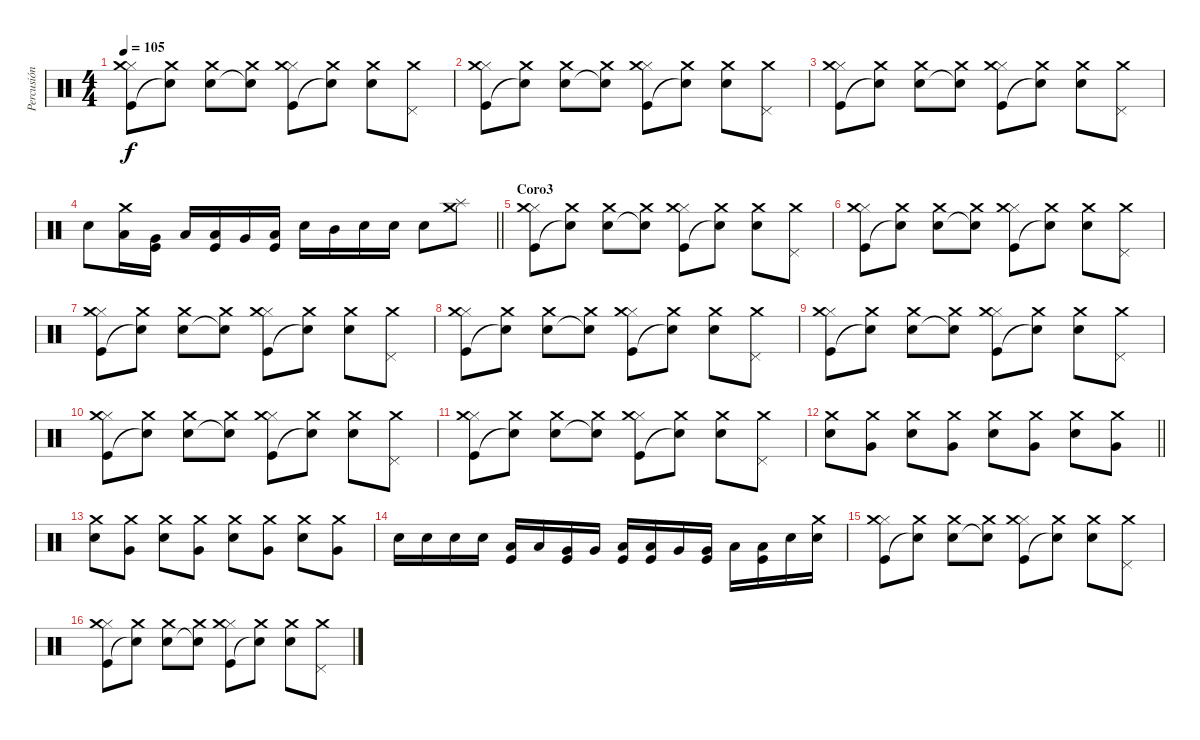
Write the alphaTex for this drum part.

\track ("Percusión" "Percusión") {instrument percussion}
\staff {score}
\articulation defaults
\ts (4 4)
\tempo 105
\clef neutral
\ks c
("Kick (hit)" "Hi-Hat (closed)" "Crash medium (hit)").8{dy f} ("Snare (hit)"{t} "Crash medium (hit)").8 ("Electric Snare (hit)" "Crash medium (hit)").8 ("Snare (hit)"{t} "Crash medium (hit)").8 ("Kick (hit)" "Hi-Hat (closed)" "Crash medium (hit)").8 ("Snare (hit)"{t} "Crash medium (hit)").8 ("Electric Snare (hit)" "Crash medium (hit)").8 ("Pedal Hi-Hat (hit)" "Crash medium (hit)").8 |
("Kick (hit)" "Hi-Hat (closed)" "Crash medium (hit)").8 ("Snare (hit)"{t} "Crash medium (hit)").8 ("Electric Snare (hit)" "Crash medium (hit)").8 ("Snare (hit)"{t} "Crash medium (hit)").8 ("Kick (hit)" "Hi-Hat (closed)" "Crash medium (hit)").8 ("Snare (hit)"{t} "Crash medium (hit)").8 ("Electric Snare (hit)" "Crash medium (hit)").8 ("Pedal Hi-Hat (hit)" "Crash medium (hit)").8 |
("Kick (hit)" "Hi-Hat (closed)" "Crash medium (hit)").8 ("Snare (hit)"{t} "Crash medium (hit)").8 ("Electric Snare (hit)" "Crash medium (hit)").8 ("Snare (hit)"{t} "Crash medium (hit)").8 ("Kick (hit)" "Hi-Hat (closed)" "Crash medium (hit)").8 ("Snare (hit)"{t} "Crash medium (hit)").8 ("Electric Snare (hit)" "Crash medium (hit)").8 ("Pedal Hi-Hat (hit)" "Crash medium (hit)").8 |
\barLineRight lightlight "Electric Snare (hit)".8
("Low Floor Tom (hit)" "Crash medium (hit)").16 ("Very Low Tom (hit)" "Kick (hit)").16 "Low Tom (hit)".16 ("Low Tom (hit)" "Kick (hit)").16 "Very Low Tom (hit)".16 ("Low Floor Tom (hit)" "Kick (hit)").16 "Electric Snare (hit)".16 "Mid Tom (hit)".16 "Electric Snare (hit)".16 "Electric Snare (hit)".16 "Electric Snare (hit)".8 ("Crash medium (hit)" "Splash (hit)").8 |
\section ("" "Coro3")
("Kick (hit)" "Hi-Hat (closed)" "Crash medium (hit)").8 ("Snare (hit)"{t} "Crash medium (hit)").8 ("Electric Snare (hit)" "Crash medium (hit)").8 ("Snare (hit)"{t} "Crash medium (hit)").8 ("Kick (hit)" "Hi-Hat (closed)" "Crash medium (hit)").8 ("Snare (hit)"{t} "Crash medium (hit)").8 ("Electric Snare (hit)" "Crash medium (hit)").8 ("Pedal Hi-Hat (hit)" "Crash medium (hit)").8 |
("Kick (hit)" "Hi-Hat (closed)" "Crash medium (hit)").8 ("Snare (hit)"{t} "Crash medium (hit)").8 ("Electric Snare (hit)" "Crash medium (hit)").8 ("Snare (hit)"{t} "Crash medium (hit)").8 ("Kick (hit)" "Hi-Hat (closed)" "Crash medium (hit)").8 ("Snare (hit)"{t} "Crash medium (hit)").8 ("Electric Snare (hit)" "Crash medium (hit)").8 ("Pedal Hi-Hat (hit)" "Crash medium (hit)").8 |
("Kick (hit)" "Hi-Hat (closed)" "Crash medium (hit)").8 ("Snare (hit)"{t} "Crash medium (hit)").8 ("Electric Snare (hit)" "Crash medium (hit)").8 ("Snare (hit)"{t} "Crash medium (hit)").8 ("Kick (hit)" "Hi-Hat (closed)" "Crash medium (hit)").8 ("Snare (hit)"{t} "Crash medium (hit)").8 ("Electric Snare (hit)" "Crash medium (hit)").8 ("Pedal Hi-Hat (hit)" "Crash medium (hit)").8 |
("Kick (hit)" "Hi-Hat (closed)" "Crash medium (hit)").8 ("Snare (hit)"{t} "Crash medium (hit)").8 ("Electric Snare (hit)" "Crash medium (hit)").8 ("Snare (hit)"{t} "Crash medium (hit)").8 ("Kick (hit)" "Hi-Hat (closed)" "Crash medium (hit)").8 ("Snare (hit)"{t} "Crash medium (hit)").8 ("Electric Snare (hit)" "Crash medium (hit)").8 ("Pedal Hi-Hat (hit)" "Crash medium (hit)").8 |
("Kick (hit)" "Hi-Hat (closed)" "Crash medium (hit)").8 ("Snare (hit)"{t} "Crash medium (hit)").8 ("Electric Snare (hit)" "Crash medium (hit)").8 ("Snare (hit)"{t} "Crash medium (hit)").8 ("Kick (hit)" "Hi-Hat (closed)" "Crash medium (hit)").8 ("Snare (hit)"{t} "Crash medium (hit)").8 ("Electric Snare (hit)" "Crash medium (hit)").8 ("Pedal Hi-Hat (hit)" "Crash medium (hit)").8 |
("Kick (hit)" "Hi-Hat (closed)" "Crash medium (hit)").8 ("Snare (hit)"{t} "Crash medium (hit)").8 ("Electric Snare (hit)" "Crash medium (hit)").8 ("Snare (hit)"{t} "Crash medium (hit)").8 ("Kick (hit)" "Hi-Hat (closed)" "Crash medium (hit)").8 ("Snare (hit)"{t} "Crash medium (hit)").8 ("Electric Snare (hit)" "Crash medium (hit)").8 ("Pedal Hi-Hat (hit)" "Crash medium (hit)").8 |
("Kick (hit)" "Hi-Hat (closed)" "Crash medium (hit)").8 ("Snare (hit)"{t} "Crash medium (hit)").8 ("Electric Snare (hit)" "Crash medium (hit)").8 ("Snare (hit)"{t} "Crash medium (hit)").8 ("Kick (hit)" "Hi-Hat (closed)" "Crash medium (hit)").8 ("Snare (hit)"{t} "Crash medium (hit)").8 ("Electric Snare (hit)" "Crash medium (hit)").8 ("Pedal Hi-Hat (hit)" "Crash medium (hit)").8 |
\barLineRight lightlight
("Electric Snare (hit)" "Crash medium (hit)").8 ("Very Low Tom (hit)" "Crash medium (hit)").8 ("Electric Snare (hit)" "Crash medium (hit)").8 ("Very Low Tom (hit)" "Crash medium (hit)").8 ("Electric Snare (hit)" "Crash medium (hit)").8 ("Very Low Tom (hit)" "Crash medium (hit)").8 ("Electric Snare (hit)" "Crash medium (hit)").8 ("Very Low Tom (hit)" "Crash medium (hit)").8 |
("Electric Snare (hit)" "Crash medium (hit)").8 ("Very Low Tom (hit)" "Crash medium (hit)").8 ("Electric Snare (hit)" "Crash medium (hit)").8 ("Very Low Tom (hit)" "Crash medium (hit)").8 ("Electric Snare (hit)" "Crash medium (hit)").8 ("Very Low Tom (hit)" "Crash medium (hit)").8 ("Electric Snare (hit)" "Crash medium (hit)").8 ("Very Low Tom (hit)" "Crash medium (hit)").8 |
"Electric Snare (hit)".16 "Electric Snare (hit)".16 "Electric Snare (hit)".16 "Electric Snare (hit)".16 ("Low Floor Tom (hit)" "Kick (hit)").16 "Low Floor Tom (hit)".16 ("Very Low Tom (hit)" "Kick (hit)").16 "Very Low Tom (hit)".16 ("Low Tom (hit)" "Kick (hit)").16 ("Low Tom (hit)" "Kick (hit)").16 "Very Low Tom (hit)".16 ("Very Low Tom (hit)" "Kick (hit)").16 "Low Floor Tom (hit)".16 ("Low Floor Tom (hit)" "Kick (hit)").16 "Electric Snare (hit)".16 ("Electric Snare (hit)" "Crash medium (hit)").16 |
("Kick (hit)" "Hi-Hat (closed)" "Crash medium (hit)").8 ("Snare (hit)"{t} "Crash medium (hit)").8 ("Electric Snare (hit)" "Crash medium (hit)").8 ("Snare (hit)"{t} "Crash medium (hit)").8 ("Kick (hit)" "Hi-Hat (closed)" "Crash medium (hit)").8 ("Snare (hit)"{t} "Crash medium (hit)").8 ("Electric Snare (hit)" "Crash medium (hit)").8 ("Pedal Hi-Hat (hit)" "Crash medium (hit)").8 |
("Kick (hit)" "Hi-Hat (closed)" "Crash medium (hit)").8 ("Snare (hit)"{t} "Crash medium (hit)").8 ("Electric Snare (hit)" "Crash medium (hit)").8 ("Snare (hit)"{t} "Crash medium (hit)").8 ("Kick (hit)" "Hi-Hat (closed)" "Crash medium (hit)").8 ("Snare (hit)"{t} "Crash medium (hit)").8 ("Electric Snare (hit)" "Crash medium (hit)").8 ("Pedal Hi-Hat (hit)" "Crash medium (hit)").8
